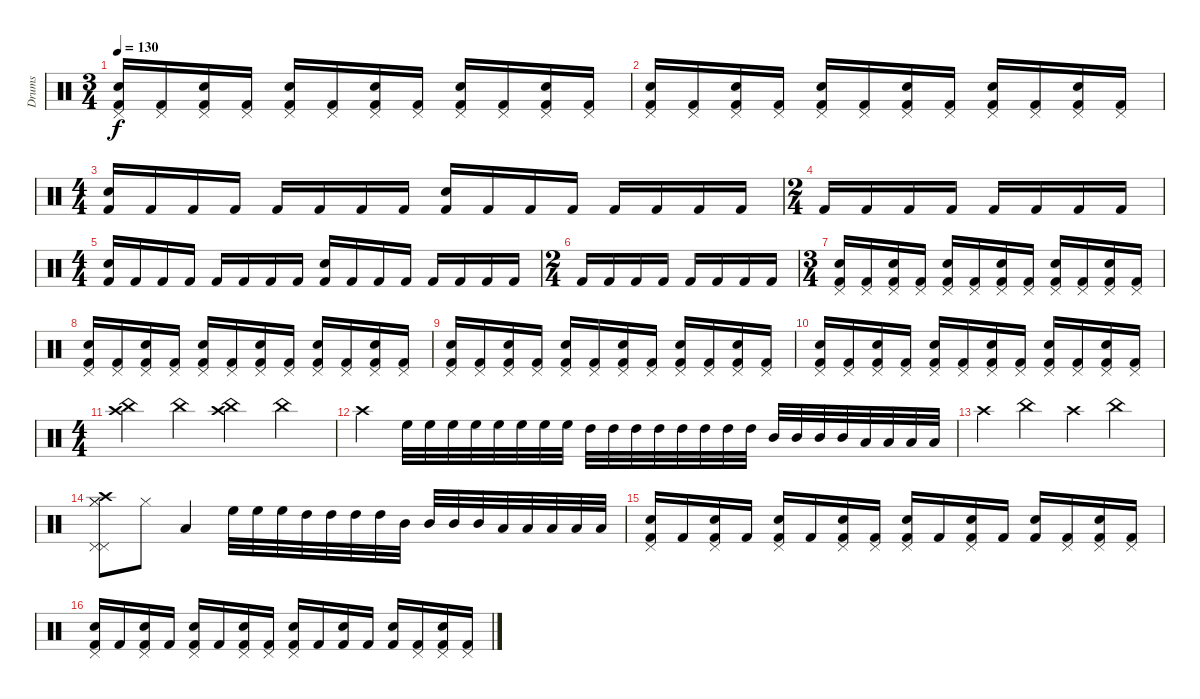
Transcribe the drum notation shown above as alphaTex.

\track ("Drums" "Drums") {instrument percussion}
\staff {score}
\articulation defaults
\ts (3 4)
\tempo 130
\clef neutral
\ks c
("Electric Snare (hit)" "Pedal Hi-Hat (hit)" "Kick (hit) 2").16{dy f} ("Pedal Hi-Hat (hit)" "Kick (hit) 2").16 ("Electric Snare (hit)" "Pedal Hi-Hat (hit)" "Kick (hit) 2").16 ("Pedal Hi-Hat (hit)" "Kick (hit) 2").16 ("Electric Snare (hit)" "Pedal Hi-Hat (hit)" "Kick (hit) 2").16 ("Pedal Hi-Hat (hit)" "Kick (hit) 2").16 ("Electric Snare (hit)" "Pedal Hi-Hat (hit)" "Kick (hit) 2").16 ("Pedal Hi-Hat (hit)" "Kick (hit) 2").16 ("Electric Snare (hit)" "Pedal Hi-Hat (hit)" "Kick (hit) 2").16 ("Pedal Hi-Hat (hit)" "Kick (hit) 2").16 ("Electric Snare (hit)" "Pedal Hi-Hat (hit)" "Kick (hit) 2").16 ("Pedal Hi-Hat (hit)" "Kick (hit) 2").16 |
("Electric Snare (hit)" "Pedal Hi-Hat (hit)" "Kick (hit) 2").16 ("Pedal Hi-Hat (hit)" "Kick (hit) 2").16 ("Electric Snare (hit)" "Pedal Hi-Hat (hit)" "Kick (hit) 2").16 ("Pedal Hi-Hat (hit)" "Kick (hit) 2").16 ("Electric Snare (hit)" "Pedal Hi-Hat (hit)" "Kick (hit) 2").16 ("Pedal Hi-Hat (hit)" "Kick (hit) 2").16 ("Electric Snare (hit)" "Pedal Hi-Hat (hit)" "Kick (hit) 2").16 ("Pedal Hi-Hat (hit)" "Kick (hit) 2").16 ("Electric Snare (hit)" "Pedal Hi-Hat (hit)" "Kick (hit) 2").16 ("Pedal Hi-Hat (hit)" "Kick (hit) 2").16 ("Electric Snare (hit)" "Pedal Hi-Hat (hit)" "Kick (hit) 2").16 ("Pedal Hi-Hat (hit)" "Kick (hit) 2").16 |
\ts (4 4)
("Electric Snare (hit)" "Kick (hit) 2").16 "Kick (hit) 2".16 "Kick (hit) 2".16 "Kick (hit) 2".16 "Kick (hit) 2".16 "Kick (hit) 2".16 "Kick (hit) 2".16 "Kick (hit) 2".16 ("Electric Snare (hit)" "Kick (hit) 2").16 "Kick (hit) 2".16 "Kick (hit) 2".16 "Kick (hit) 2".16 "Kick (hit) 2".16 "Kick (hit) 2".16 "Kick (hit) 2".16 "Kick (hit) 2".16 |
\ts (2 4)
"Kick (hit) 2".16 "Kick (hit) 2".16 "Kick (hit) 2".16 "Kick (hit) 2".16 "Kick (hit) 2".16 "Kick (hit) 2".16 "Kick (hit) 2".16 "Kick (hit) 2".16 |
\ts (4 4)
("Electric Snare (hit)" "Kick (hit) 2").16 "Kick (hit) 2".16 "Kick (hit) 2".16 "Kick (hit) 2".16 "Kick (hit) 2".16 "Kick (hit) 2".16 "Kick (hit) 2".16 "Kick (hit) 2".16 ("Electric Snare (hit)" "Kick (hit) 2").16 "Kick (hit) 2".16 "Kick (hit) 2".16 "Kick (hit) 2".16 "Kick (hit) 2".16 "Kick (hit) 2".16 "Kick (hit) 2".16 "Kick (hit) 2".16 |
\ts (2 4)
"Kick (hit) 2".16 "Kick (hit) 2".16 "Kick (hit) 2".16 "Kick (hit) 2".16 "Kick (hit) 2".16 "Kick (hit) 2".16 "Kick (hit) 2".16 "Kick (hit) 2".16 |
\ts (3 4)
("Electric Snare (hit)" "Pedal Hi-Hat (hit)" "Kick (hit) 2").16 ("Pedal Hi-Hat (hit)" "Kick (hit) 2").16 ("Electric Snare (hit)" "Pedal Hi-Hat (hit)" "Kick (hit) 2").16 ("Pedal Hi-Hat (hit)" "Kick (hit) 2").16 ("Electric Snare (hit)" "Pedal Hi-Hat (hit)" "Kick (hit) 2").16 ("Pedal Hi-Hat (hit)" "Kick (hit) 2").16 ("Electric Snare (hit)" "Pedal Hi-Hat (hit)" "Kick (hit) 2").16 ("Pedal Hi-Hat (hit)" "Kick (hit) 2").16 ("Electric Snare (hit)" "Pedal Hi-Hat (hit)" "Kick (hit) 2").16 ("Pedal Hi-Hat (hit)" "Kick (hit) 2").16 ("Electric Snare (hit)" "Pedal Hi-Hat (hit)" "Kick (hit) 2").16 ("Pedal Hi-Hat (hit)" "Kick (hit) 2").16 |
("Electric Snare (hit)" "Pedal Hi-Hat (hit)" "Kick (hit) 2").16 ("Pedal Hi-Hat (hit)" "Kick (hit) 2").16 ("Electric Snare (hit)" "Pedal Hi-Hat (hit)" "Kick (hit) 2").16 ("Pedal Hi-Hat (hit)" "Kick (hit) 2").16 ("Electric Snare (hit)" "Pedal Hi-Hat (hit)" "Kick (hit) 2").16 ("Pedal Hi-Hat (hit)" "Kick (hit) 2").16 ("Electric Snare (hit)" "Pedal Hi-Hat (hit)" "Kick (hit) 2").16 ("Pedal Hi-Hat (hit)" "Kick (hit) 2").16 ("Electric Snare (hit)" "Pedal Hi-Hat (hit)" "Kick (hit) 2").16 ("Pedal Hi-Hat (hit)" "Kick (hit) 2").16 ("Electric Snare (hit)" "Pedal Hi-Hat (hit)" "Kick (hit) 2").16 ("Pedal Hi-Hat (hit)" "Kick (hit) 2").16 |
("Electric Snare (hit)" "Pedal Hi-Hat (hit)" "Kick (hit) 2").16 ("Pedal Hi-Hat (hit)" "Kick (hit) 2").16 ("Electric Snare (hit)" "Pedal Hi-Hat (hit)" "Kick (hit) 2").16 ("Pedal Hi-Hat (hit)" "Kick (hit) 2").16 ("Electric Snare (hit)" "Pedal Hi-Hat (hit)" "Kick (hit) 2").16 ("Pedal Hi-Hat (hit)" "Kick (hit) 2").16 ("Electric Snare (hit)" "Pedal Hi-Hat (hit)" "Kick (hit) 2").16 ("Pedal Hi-Hat (hit)" "Kick (hit) 2").16 ("Electric Snare (hit)" "Pedal Hi-Hat (hit)" "Kick (hit) 2").16 ("Pedal Hi-Hat (hit)" "Kick (hit) 2").16 ("Electric Snare (hit)" "Pedal Hi-Hat (hit)" "Kick (hit) 2").16 ("Pedal Hi-Hat (hit)" "Kick (hit) 2").16 |
("Electric Snare (hit)" "Pedal Hi-Hat (hit)" "Kick (hit) 2").16 ("Pedal Hi-Hat (hit)" "Kick (hit) 2").16 ("Electric Snare (hit)" "Pedal Hi-Hat (hit)" "Kick (hit) 2").16 ("Pedal Hi-Hat (hit)" "Kick (hit) 2").16 ("Electric Snare (hit)" "Pedal Hi-Hat (hit)" "Kick (hit) 2").16 ("Pedal Hi-Hat (hit)" "Kick (hit) 2").16 ("Electric Snare (hit)" "Pedal Hi-Hat (hit)" "Kick (hit) 2").16 ("Pedal Hi-Hat (hit)" "Kick (hit) 2").16 ("Electric Snare (hit)" "Pedal Hi-Hat (hit)" "Kick (hit) 2").16 ("Pedal Hi-Hat (hit)" "Kick (hit) 2").16 ("Electric Snare (hit)" "Pedal Hi-Hat (hit)" "Kick (hit) 2").16 ("Pedal Hi-Hat (hit)" "Kick (hit) 2").16 |
\ts (4 4)
("Crash high (hit)" "China (hit)").4 "China (hit)".4 ("Crash high (hit)" "China (hit)").4 "China (hit)".4 |
"Crash high (hit)".4 "High Floor Tom (hit)".32 "High Floor Tom (hit)".32 "High Floor Tom (hit)".32 "High Floor Tom (hit)".32 "High Floor Tom (hit)".32 "High Floor Tom (hit)".32 "High Floor Tom (hit)".32 "High Floor Tom (hit)".32 "High Tom (hit)".32 "High Tom (hit)".32 "High Tom (hit)".32 "High Tom (hit)".32 "High Tom (hit)".32 "High Tom (hit)".32 "High Tom (hit)".32 "High Tom (hit)".32 "Mid Tom (hit)".32 "Mid Tom (hit)".32 "Mid Tom (hit)".32 "Mid Tom (hit)".32 "Low Floor Tom (hit)".32 "Low Floor Tom (hit)".32 "Low Floor Tom (hit)".32 "Low Floor Tom (hit)".32 |
"Crash high (hit)".4 "China (hit)".4 "Crash high (hit)".4 "China (hit)".4 |
("Hi-Hat (closed)" "Hi-Hat (closed)" "Pedal Hi-Hat (hit)" "Pedal Hi-Hat (hit)" "Crash high (hit)").8 "Hi-Hat (closed)".8 "Low Floor Tom (hit)".4 "High Floor Tom (hit)".32 "High Floor Tom (hit)".32 "High Floor Tom (hit)".32 "High Tom (hit)".32 "High Tom (hit)".32 "High Tom (hit)".32 "High Tom (hit)".32 "Mid Tom (hit)".32 "Mid Tom (hit)".32 "Mid Tom (hit)".32 "Mid Tom (hit)".32 "Low Tom (hit)".32 "Low Tom (hit)".32 "Low Tom (hit)".32 "Low Tom (hit)".32 "Low Floor Tom (hit)".32 |
("Pedal Hi-Hat (hit)" "Electric Snare (hit)" "Kick (hit) 2").16 "Kick (hit) 2".16 ("Pedal Hi-Hat (hit)" "Electric Snare (hit)" "Kick (hit) 2").16 "Kick (hit) 2".16 ("Pedal Hi-Hat (hit)" "Electric Snare (hit)" "Kick (hit) 2").16 "Kick (hit) 2".16 ("Pedal Hi-Hat (hit)" "Electric Snare (hit)" "Kick (hit) 2").16 ("Pedal Hi-Hat (hit)" "Kick (hit) 2").16 ("Pedal Hi-Hat (hit)" "Electric Snare (hit)" "Kick (hit) 2").16 "Kick (hit) 2".16 ("Pedal Hi-Hat (hit)" "Electric Snare (hit)" "Kick (hit) 2").16 "Kick (hit) 2".16 ("Electric Snare (hit)" "Kick (hit) 2").16 ("Pedal Hi-Hat (hit)" "Kick (hit) 2").16 ("Pedal Hi-Hat (hit)" "Electric Snare (hit)" "Kick (hit) 2").16 ("Pedal Hi-Hat (hit)" "Kick (hit) 2").16 |
("Pedal Hi-Hat (hit)" "Electric Snare (hit)" "Kick (hit) 2").16 "Kick (hit) 2".16 ("Pedal Hi-Hat (hit)" "Electric Snare (hit)" "Kick (hit) 2").16 "Kick (hit) 2".16 ("Pedal Hi-Hat (hit)" "Electric Snare (hit)" "Kick (hit) 2").16 "Kick (hit) 2".16 ("Pedal Hi-Hat (hit)" "Electric Snare (hit)" "Kick (hit) 2").16 ("Pedal Hi-Hat (hit)" "Kick (hit) 2").16 ("Pedal Hi-Hat (hit)" "Electric Snare (hit)" "Kick (hit) 2").16 "Kick (hit) 2".16 ("Electric Snare (hit)" "Kick (hit) 2").16 "Kick (hit) 2".16 ("Electric Snare (hit)" "Kick (hit) 2").16 ("Pedal Hi-Hat (hit)" "Kick (hit) 2").16 ("Pedal Hi-Hat (hit)" "Electric Snare (hit)" "Kick (hit) 2").16 ("Pedal Hi-Hat (hit)" "Kick (hit) 2").16
